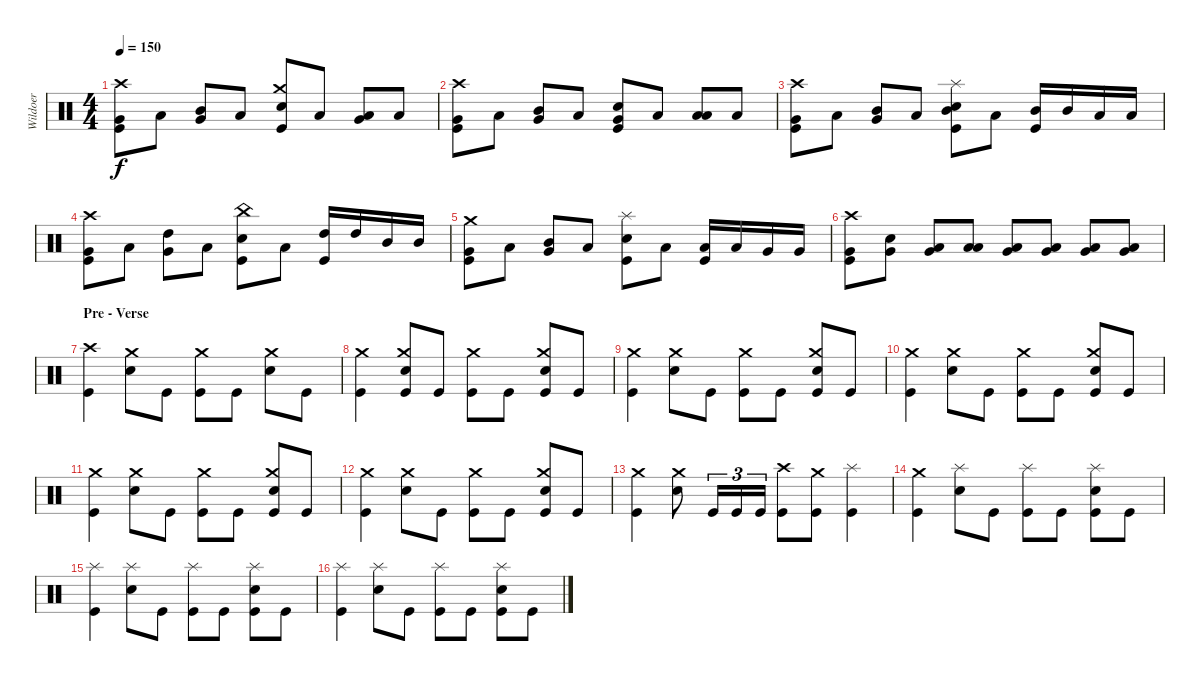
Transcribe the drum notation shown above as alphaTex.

\track ("Wildoer" "Wildoer") {instrument percussion}
\staff {score}
\articulation defaults
\ts (4 4)
\tempo 150
\clef neutral
\ks c
("Crash high (hit)" "Very Low Tom (hit)" "Kick (hit)").8{dy f} "Low Floor Tom (hit)".8 ("Mid Tom (hit)" "Very Low Tom (hit)").8 "Low Floor Tom (hit)".8 ("Crash medium (hit)" "Electric Snare (hit)" "Kick (hit)").8 "Low Floor Tom (hit)".8 ("Low Tom (hit)" "Very Low Tom (hit)").8 "Low Floor Tom (hit)".8 |
("Crash high (hit)" "Very Low Tom (hit)" "Kick (hit)").8 "Low Floor Tom (hit)".8 ("Mid Tom (hit)" "Very Low Tom (hit)").8 "Low Floor Tom (hit)".8 ("Electric Snare (hit)" "Very Low Tom (hit)" "Kick (hit)").8 "Low Floor Tom (hit)".8 ("Low Tom (hit)" "Low Floor Tom (hit)").8 "Low Floor Tom (hit)".8 |
("Crash high (hit)" "Very Low Tom (hit)" "Kick (hit)").8 "Low Floor Tom (hit)".8 ("Mid Tom (hit)" "Very Low Tom (hit)").8 "Low Floor Tom (hit)".8 ("Splash (hit)" "Electric Snare (hit)" "Mid Tom (hit)" "Kick (hit)").8 "Low Floor Tom (hit)".8 ("Mid Tom (hit)" "Kick (hit)").16 "Mid Tom (hit)".16 "Low Tom (hit)".16 "Low Tom (hit)".16 |
("Crash high (hit)" "Very Low Tom (hit)" "Kick (hit)").8 "Low Floor Tom (hit)".8 ("High Tom (hit)" "Very Low Tom (hit)").8 "Low Floor Tom (hit)".8 ("China (hit)" "Electric Snare (hit)" "Kick (hit)").8 "Low Floor Tom (hit)".8 ("High Tom (hit)" "Kick (hit)").16 "High Tom (hit)".16 "Mid Tom (hit)".16 "Mid Tom (hit)".16 |
("Crash medium (hit)" "Very Low Tom (hit)" "Kick (hit)").8 "Low Floor Tom (hit)".8 ("Mid Tom (hit)" "Very Low Tom (hit)").8 "Low Floor Tom (hit)".8 ("Splash (hit)" "Electric Snare (hit)" "Kick (hit)").8 "Low Floor Tom (hit)".8 ("Low Tom (hit)" "Kick (hit)").16 "Low Tom (hit)".16 "Very Low Tom (hit)".16 "Very Low Tom (hit)".16 |
("Crash high (hit)" "Very Low Tom (hit)" "Kick (hit)").8 ("Electric Snare (hit)" "Very Low Tom (hit)").8 ("Low Tom (hit)" "Very Low Tom (hit)").8 ("Low Tom (hit)" "Low Floor Tom (hit)").8 ("Low Floor Tom (hit)" "Very Low Tom (hit)").8 ("Low Floor Tom (hit)" "Very Low Tom (hit)").8 ("Low Floor Tom (hit)" "Very Low Tom (hit)").8 ("Low Floor Tom (hit)" "Very Low Tom (hit)").8 |
\section ("" "Pre - Verse")
("Crash high (hit)" "Kick (hit)").4 ("Crash medium (hit)" "Electric Snare (hit)").8 "Kick (hit)".8 ("Crash medium (hit)" "Kick (hit)").8 "Kick (hit)".8 ("Crash medium (hit)" "Electric Snare (hit)").8 "Kick (hit)".8 |
("Crash medium (hit)" "Kick (hit)").4 ("Crash medium (hit)" "Electric Snare (hit)" "Kick (hit)").8 "Kick (hit)".8 ("Crash medium (hit)" "Kick (hit)").8 "Kick (hit)".8 ("Crash medium (hit)" "Electric Snare (hit)" "Kick (hit)").8 "Kick (hit)".8 |
("Crash medium (hit)" "Kick (hit)").4 ("Crash medium (hit)" "Electric Snare (hit)").8 "Kick (hit)".8 ("Crash medium (hit)" "Kick (hit)").8 "Kick (hit)".8 ("Crash medium (hit)" "Electric Snare (hit)" "Kick (hit)").8 "Kick (hit)".8 |
("Crash medium (hit)" "Kick (hit)").4 ("Crash medium (hit)" "Electric Snare (hit)").8 "Kick (hit)".8 ("Crash medium (hit)" "Kick (hit)").8 "Kick (hit)".8 ("Crash medium (hit)" "Electric Snare (hit)" "Kick (hit)").8 "Kick (hit)".8 |
("Crash medium (hit)" "Kick (hit)").4 ("Crash medium (hit)" "Electric Snare (hit)").8 "Kick (hit)".8 ("Crash medium (hit)" "Kick (hit)").8 "Kick (hit)".8 ("Crash medium (hit)" "Electric Snare (hit)" "Kick (hit)").8 "Kick (hit)".8 |
("Crash medium (hit)" "Kick (hit)").4 ("Crash medium (hit)" "Electric Snare (hit)").8 "Kick (hit)".8 ("Crash medium (hit)" "Kick (hit)").8 "Kick (hit)".8 ("Crash medium (hit)" "Electric Snare (hit)" "Kick (hit)").8 "Kick (hit)".8 |
("Crash medium (hit)" "Kick (hit)").4 ("Crash medium (hit)" "Electric Snare (hit)").8 "Kick (hit)".16{tu (3 2)} "Kick (hit)".16{tu (3 2)} "Kick (hit)".16{tu (3 2)} ("Crash high (hit)" "Kick (hit)").8 ("Crash medium (hit)" "Kick (hit)").8 ("Splash (hit)" "Kick (hit)").4 |
("Crash medium (hit)" "Kick (hit)").4 ("Splash (hit)" "Electric Snare (hit)").8 "Kick (hit)".8 ("Splash (hit)" "Kick (hit)").8 "Kick (hit)".8 ("Splash (hit)" "Electric Snare (hit)" "Kick (hit)").8 "Kick (hit)".8 |
("Splash (hit)" "Kick (hit)").4 ("Splash (hit)" "Electric Snare (hit)").8 "Kick (hit)".8 ("Splash (hit)" "Kick (hit)").8 "Kick (hit)".8 ("Splash (hit)" "Electric Snare (hit)" "Kick (hit)").8 "Kick (hit)".8 |
("Splash (hit)" "Kick (hit)").4 ("Splash (hit)" "Electric Snare (hit)").8 "Kick (hit)".8 ("Splash (hit)" "Kick (hit)").8 "Kick (hit)".8 ("Splash (hit)" "Electric Snare (hit)" "Kick (hit)").8 "Kick (hit)".8
